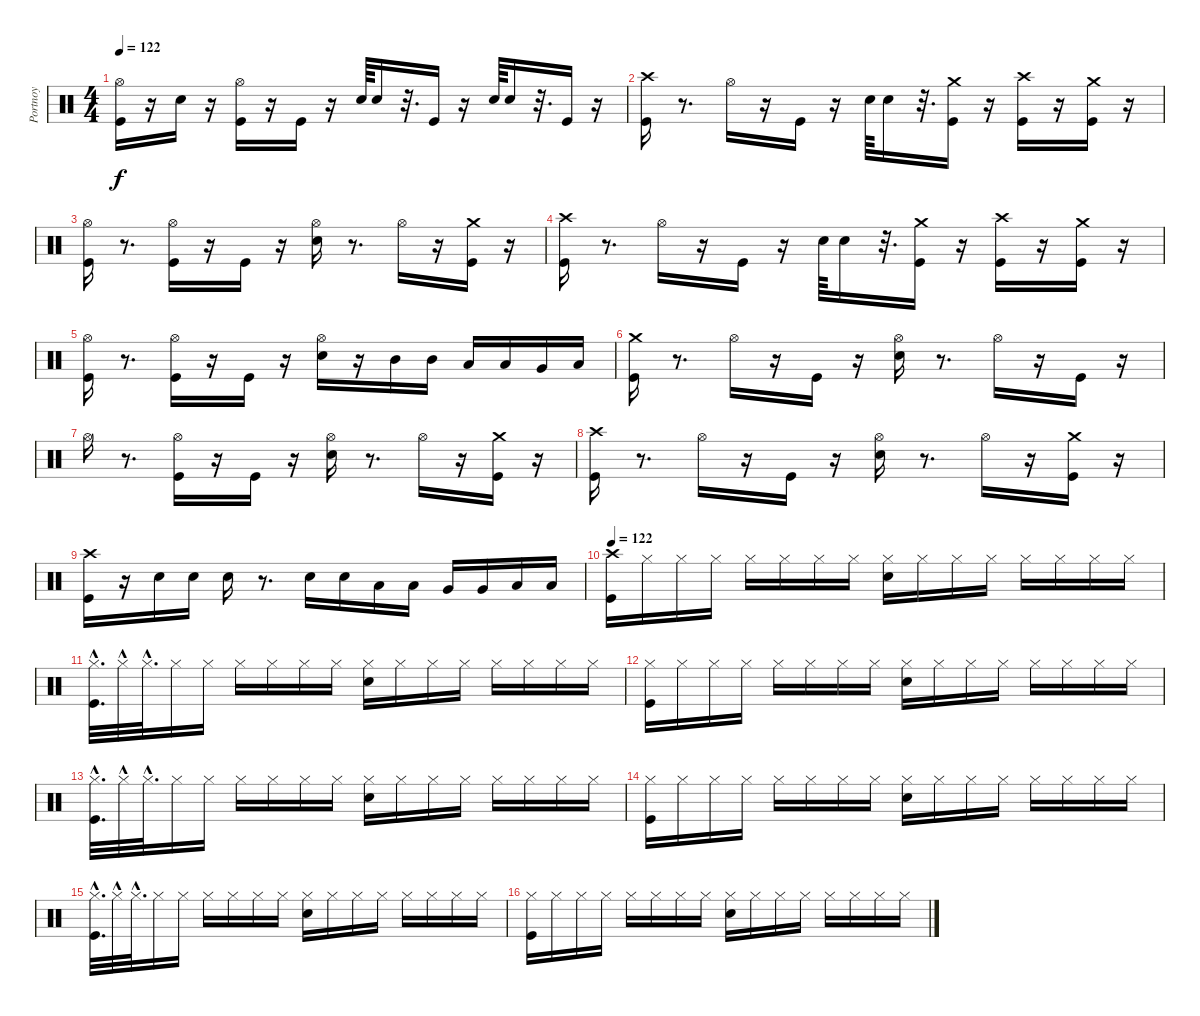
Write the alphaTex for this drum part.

\track ("Portnoy" "Portnoy") {instrument percussion}
\staff {score}
\articulation defaults
\ts (4 4)
\tempo 122
\clef neutral
\ks c
("Hi-Hat (open)" "Kick (hit)").16{dy f} r.16 "Metronome (bell)".16 r.16 ("Kick (hit)" "Hi-Hat (open)").16 r.16 "Kick (hit)".16 r.16 "Metronome (bell)".64 "Metronome (bell)".16 r.32{d} "Kick (hit)".16 r.16 "Metronome (bell)".64 "Metronome (bell)".16 r.32{d} "Kick (hit)".16 r.16 |
("Crash high (hit)" "Kick (hit)").16 r.8{d} "Hi-Hat (open)".16 r.16 "Kick (hit)".16 r.16 "Metronome (bell)".64 "Metronome (bell)".16 r.32{d} ("Crash medium (hit)" "Kick (hit)").16 r.16 ("Crash high (hit)" "Kick (hit)").16 r.16 ("Crash medium (hit)" "Kick (hit)").16 r.16 |
("Kick (hit)" "Hi-Hat (open)").16 r.8{d} ("Kick (hit)" "Hi-Hat (open)").16 r.16 "Kick (hit)".16 r.16 ("Metronome (bell)" "Hi-Hat (open)").16 r.8{d} "Hi-Hat (open)".16 r.16 ("Crash medium (hit)" "Kick (hit)").16 r.16 |
("Crash high (hit)" "Kick (hit)").16 r.8{d} "Hi-Hat (open)".16 r.16 "Kick (hit)".16 r.16 "Metronome (bell)".64 "Metronome (bell)".16 r.32{d} ("Crash medium (hit)" "Kick (hit)").16 r.16 ("Crash high (hit)" "Kick (hit)").16 r.16 ("Crash medium (hit)" "Kick (hit)").16 r.16 |
("Kick (hit)" "Hi-Hat (open)").16 r.8{d} ("Kick (hit)" "Hi-Hat (open)").16 r.16 "Kick (hit)".16 r.16 ("Metronome (bell)" "Hi-Hat (open)").16 r.16 "Mid Tom (hit)".16 "Mid Tom (hit)".16 "Low Tom (hit)".16 "Low Tom (hit)".16 "Very Low Tom (hit)".16 "Low Floor Tom (hit)".16 |
("Crash medium (hit)" "Kick (hit)").16 r.8{d} "Hi-Hat (open)".16 r.16 "Kick (hit)".16 r.16 ("Hi-Hat (open)" "Metronome (bell)").16 r.8{d} "Hi-Hat (open)".16 r.16 "Kick (hit)".16 r.16 |
"Hi-Hat (open)".16 r.8{d} ("Hi-Hat (open)" "Kick (hit)").16 r.16 "Kick (hit)".16 r.16 ("Hi-Hat (open)" "Metronome (bell)").16 r.8{d} "Hi-Hat (open)".16 r.16 ("Crash medium (hit)" "Kick (hit)").16 r.16 |
("Crash high (hit)" "Kick (hit)").16 r.8{d} "Hi-Hat (open)".16 r.16 "Kick (hit)".16 r.16 ("Metronome (bell)" "Hi-Hat (open)").16 r.8{d} "Hi-Hat (open)".16 r.16 ("Crash medium (hit)" "Kick (hit)").16 r.16 |
("Kick (hit)" "Crash high (hit)").16 r.16 "Metronome (bell)".16 "Metronome (bell)".16 "Metronome (bell)".16 r.8{d} "Metronome (bell)".16 "Metronome (bell)".16 "Low Tom (hit)".16 "Low Tom (hit)".16 "Very Low Tom (hit)".16 "Very Low Tom (hit)".16 "Low Floor Tom (hit)".16 "Low Floor Tom (hit)".16 |
\tempo 122
("Crash high (hit)" "Kick (hit)").16 "Hi-Hat (closed)".16 "Hi-Hat (closed)".16 "Hi-Hat (closed)".16 "Hi-Hat (closed)".16 "Hi-Hat (closed)".16 "Hi-Hat (closed)".16 "Hi-Hat (closed)".16 ("Metronome (bell)" "Hi-Hat (closed)").16 "Hi-Hat (closed)".16 "Hi-Hat (closed)".16 "Hi-Hat (closed)".16 "Hi-Hat (closed)".16 "Hi-Hat (closed)".16 "Hi-Hat (closed)".16 "Hi-Hat (closed)".16 |
("Hi-Hat (closed)"{hac} "Kick (hit)"{hac}).32{d} "Hi-Hat (closed)"{hac}.32 "Hi-Hat (closed)"{hac}.32{d} "Hi-Hat (closed)".16 "Hi-Hat (closed)".16 "Hi-Hat (closed)".16 "Hi-Hat (closed)".16 "Hi-Hat (closed)".16 "Hi-Hat (closed)".16 ("Metronome (bell)" "Hi-Hat (closed)").16 "Hi-Hat (closed)".16 "Hi-Hat (closed)".16 "Hi-Hat (closed)".16 "Hi-Hat (closed)".16 "Hi-Hat (closed)".16 "Hi-Hat (closed)".16 "Hi-Hat (closed)".16 |
("Hi-Hat (closed)" "Kick (hit)").16 "Hi-Hat (closed)".16 "Hi-Hat (closed)".16 "Hi-Hat (closed)".16 "Hi-Hat (closed)".16 "Hi-Hat (closed)".16 "Hi-Hat (closed)".16 "Hi-Hat (closed)".16 ("Metronome (bell)" "Hi-Hat (closed)").16 "Hi-Hat (closed)".16 "Hi-Hat (closed)".16 "Hi-Hat (closed)".16 "Hi-Hat (closed)".16 "Hi-Hat (closed)".16 "Hi-Hat (closed)".16 "Hi-Hat (closed)".16 |
("Hi-Hat (closed)"{hac} "Kick (hit)"{hac}).32{d} "Hi-Hat (closed)"{hac}.32 "Hi-Hat (closed)"{hac}.32{d} "Hi-Hat (closed)".16 "Hi-Hat (closed)".16 "Hi-Hat (closed)".16 "Hi-Hat (closed)".16 "Hi-Hat (closed)".16 "Hi-Hat (closed)".16 ("Metronome (bell)" "Hi-Hat (closed)").16 "Hi-Hat (closed)".16 "Hi-Hat (closed)".16 "Hi-Hat (closed)".16 "Hi-Hat (closed)".16 "Hi-Hat (closed)".16 "Hi-Hat (closed)".16 "Hi-Hat (closed)".16 |
("Hi-Hat (closed)" "Kick (hit)").16 "Hi-Hat (closed)".16 "Hi-Hat (closed)".16 "Hi-Hat (closed)".16 "Hi-Hat (closed)".16 "Hi-Hat (closed)".16 "Hi-Hat (closed)".16 "Hi-Hat (closed)".16 ("Metronome (bell)" "Hi-Hat (closed)").16 "Hi-Hat (closed)".16 "Hi-Hat (closed)".16 "Hi-Hat (closed)".16 "Hi-Hat (closed)".16 "Hi-Hat (closed)".16 "Hi-Hat (closed)".16 "Hi-Hat (closed)".16 |
("Hi-Hat (closed)"{hac} "Kick (hit)"{hac}).32{d} "Hi-Hat (closed)"{hac}.32 "Hi-Hat (closed)"{hac}.32{d} "Hi-Hat (closed)".16 "Hi-Hat (closed)".16 "Hi-Hat (closed)".16 "Hi-Hat (closed)".16 "Hi-Hat (closed)".16 "Hi-Hat (closed)".16 ("Metronome (bell)" "Hi-Hat (closed)").16 "Hi-Hat (closed)".16 "Hi-Hat (closed)".16 "Hi-Hat (closed)".16 "Hi-Hat (closed)".16 "Hi-Hat (closed)".16 "Hi-Hat (closed)".16 "Hi-Hat (closed)".16 |
("Hi-Hat (closed)" "Kick (hit)").16 "Hi-Hat (closed)".16 "Hi-Hat (closed)".16 "Hi-Hat (closed)".16 "Hi-Hat (closed)".16 "Hi-Hat (closed)".16 "Hi-Hat (closed)".16 "Hi-Hat (closed)".16 ("Metronome (bell)" "Hi-Hat (closed)").16 "Hi-Hat (closed)".16 "Hi-Hat (closed)".16 "Hi-Hat (closed)".16 "Hi-Hat (closed)".16 "Hi-Hat (closed)".16 "Hi-Hat (closed)".16 "Hi-Hat (closed)".16
